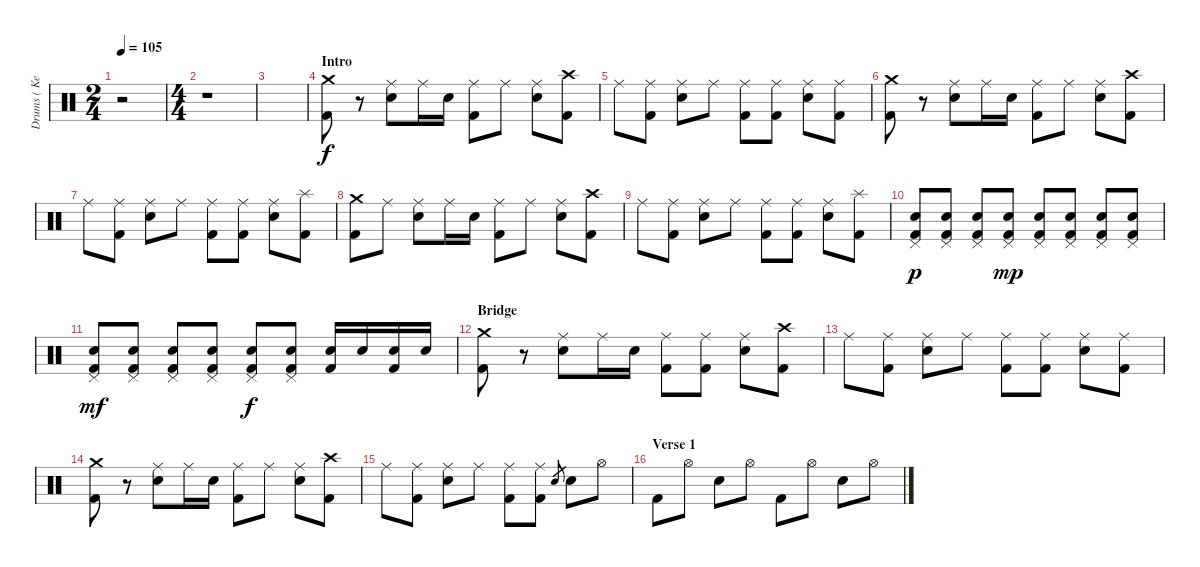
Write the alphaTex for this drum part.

\track ("Drums ( Kevin Miller )" "Drums ( Ke") {instrument percussion}
\staff {score}
\articulation defaults
\ts (2 4)
\tempo 105
\clef neutral
\ks c
r.2{dy f} |
\ts (4 4)
r.1 |
|
\section ("" "Intro")
("Crash medium (hit)" "Kick (hit) 2").8 r.8 ("Ride (middle)" "Snare (hit) 2").8 "Ride (middle)".16 "Snare (hit) 2".16 ("Ride (middle)" "Kick (hit) 2").8 "Ride (middle)".8 ("Ride (middle)" "Snare (hit) 2").8 ("Crash high (hit)" "Kick (hit) 2").8 |
"Ride (middle)".8 ("Ride (middle)" "Kick (hit) 2").8 ("Ride (middle)" "Snare (hit) 2").8 "Ride (middle)".8 ("Ride (middle)" "Kick (hit) 2").8 ("Ride (middle)" "Kick (hit) 2").8 ("Ride (middle)" "Snare (hit) 2").8 ("Ride (middle)" "Kick (hit) 2").8 |
("Crash medium (hit)" "Kick (hit) 2").8 r.8 ("Ride (middle)" "Snare (hit) 2").8 "Ride (middle)".16 "Snare (hit) 2".16 ("Ride (middle)" "Kick (hit) 2").8 "Ride (middle)".8 ("Ride (middle)" "Snare (hit) 2").8 ("Crash high (hit)" "Kick (hit) 2").8 |
"Ride (middle)".8 ("Ride (middle)" "Kick (hit) 2").8 ("Ride (middle)" "Snare (hit) 2").8 "Ride (middle)".8 ("Ride (middle)" "Kick (hit) 2").8 ("Ride (middle)" "Kick (hit) 2").8 ("Ride (middle)" "Snare (hit) 2").8 ("Splash (hit)" "Kick (hit) 2").8 |
("Crash medium (hit)" "Kick (hit) 2").8 "Ride (middle)".8 ("Ride (middle)" "Snare (hit) 2").8 "Ride (middle)".16 "Snare (hit) 2".16 ("Ride (middle)" "Kick (hit) 2").8 "Ride (middle)".8 ("Ride (middle)" "Snare (hit) 2").8 ("Crash high (hit)" "Kick (hit) 2").8 |
"Ride (middle)".8 ("Ride (middle)" "Kick (hit) 2").8 ("Ride (middle)" "Snare (hit) 2").8 "Ride (middle)".8 ("Ride (middle)" "Kick (hit) 2").8 ("Ride (middle)" "Kick (hit) 2").8 ("Ride (middle)" "Snare (hit) 2").8 ("Splash (hit)" "Kick (hit) 2").8 |
("Pedal Hi-Hat (hit)" "Snare (hit) 2" "Kick (hit) 2").8{dy p} ("Pedal Hi-Hat (hit)" "Snare (hit) 2" "Kick (hit) 2").8 ("Pedal Hi-Hat (hit)" "Snare (hit) 2" "Kick (hit) 2").8 ("Pedal Hi-Hat (hit)" "Snare (hit) 2" "Kick (hit) 2").8{dy mp} ("Pedal Hi-Hat (hit)" "Snare (hit) 2" "Kick (hit) 2").8 ("Pedal Hi-Hat (hit)" "Snare (hit) 2" "Kick (hit) 2").8 ("Pedal Hi-Hat (hit)" "Snare (hit) 2" "Kick (hit) 2").8 ("Pedal Hi-Hat (hit)" "Snare (hit) 2" "Kick (hit) 2").8 |
("Pedal Hi-Hat (hit)" "Snare (hit) 2" "Kick (hit) 2").8{dy mf} ("Pedal Hi-Hat (hit)" "Snare (hit) 2" "Kick (hit) 2").8 ("Pedal Hi-Hat (hit)" "Snare (hit) 2" "Kick (hit) 2").8 ("Pedal Hi-Hat (hit)" "Snare (hit) 2" "Kick (hit) 2").8 ("Pedal Hi-Hat (hit)" "Snare (hit) 2" "Kick (hit) 2").8{dy f} ("Pedal Hi-Hat (hit)" "Snare (hit) 2" "Kick (hit) 2").8 ("Snare (hit) 2" "Kick (hit) 2").16 "Snare (hit) 2".16 ("Snare (hit) 2" "Kick (hit) 2").16 "Snare (hit) 2".16 |
\section ("" "Bridge")
("Crash medium (hit)" "Kick (hit) 2").8 r.8 ("Ride (middle)" "Snare (hit) 2").8 "Ride (middle)".16 "Snare (hit) 2".16 ("Ride (middle)" "Kick (hit) 2").8 ("Ride (middle)" "Kick (hit) 2").8 ("Ride (middle)" "Snare (hit) 2").8 ("Crash high (hit)" "Kick (hit) 2").8 |
"Ride (middle)".8 ("Ride (middle)" "Kick (hit) 2").8 ("Ride (middle)" "Snare (hit) 2").8 "Ride (middle)".8 ("Ride (middle)" "Kick (hit) 2").8 ("Ride (middle)" "Kick (hit) 2").8 ("Ride (middle)" "Snare (hit) 2").8 ("Ride (middle)" "Kick (hit) 2").8 |
("Crash medium (hit)" "Kick (hit) 2").8 r.8 ("Ride (middle)" "Snare (hit) 2").8 "Ride (middle)".16 "Snare (hit) 2".16 ("Ride (middle)" "Kick (hit) 2").8 "Ride (middle)".8 ("Ride (middle)" "Snare (hit) 2").8 ("Crash high (hit)" "Kick (hit) 2").8 |
"Ride (middle)".8 ("Ride (middle)" "Kick (hit) 2").8 ("Ride (middle)" "Snare (hit) 2").8 "Ride (middle)".8 ("Ride (middle)" "Kick (hit) 2").8 ("Ride (middle)" "Kick (hit) 2").8 "Snare (hit) 2".8{gr} "Snare (hit) 2".8 "Hi-Hat (open)".8 |
\section ("" "Verse 1")
"Kick (hit) 2".8 "Hi-Hat (open)".8 "Snare (hit) 2".8 "Hi-Hat (open)".8 "Kick (hit) 2".8 "Hi-Hat (open)".8 "Snare (hit) 2".8 "Hi-Hat (open)".8
